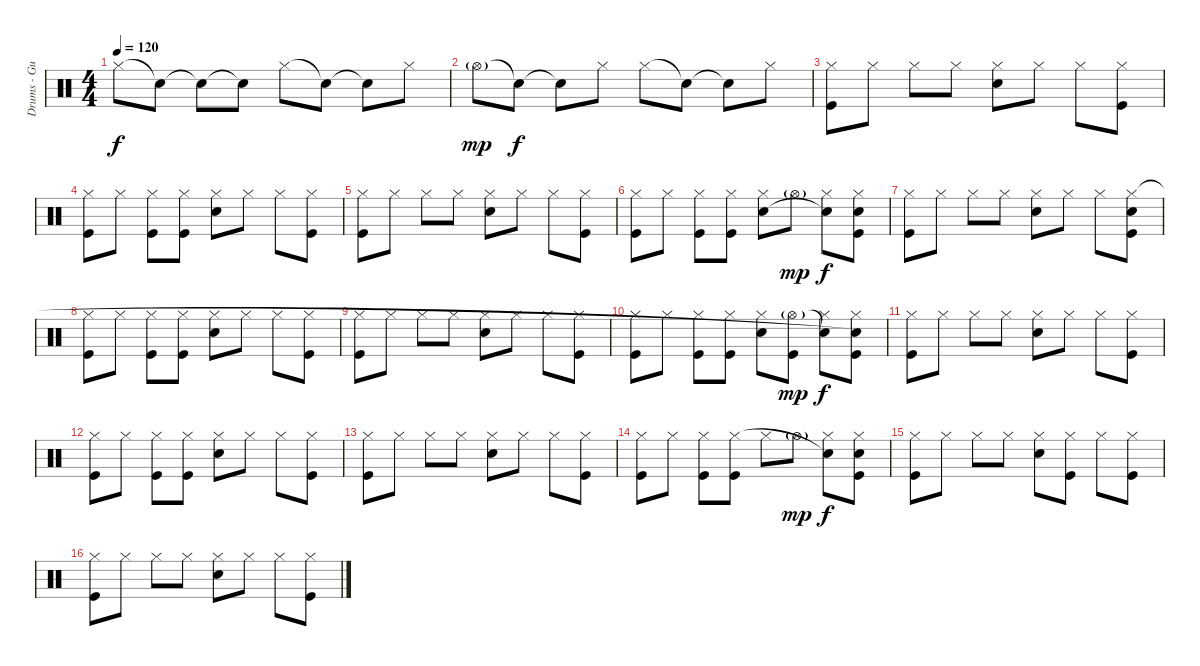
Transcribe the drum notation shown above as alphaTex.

\track ("Drums - Gustav" "Drums - Gu") {instrument percussion}
\staff {score}
\articulation defaults
\ts (4 4)
\tempo 120
\clef neutral
\ks c "Hi-Hat (closed)".8{dy f} "Snare (hit)"{t}.8 "Snare (hit)"{t}.8 "Snare (hit)"{t}.8 "Hi-Hat (closed)".8 "Snare (hit)"{t}.8 "Snare (hit)"{t}.8 "Hi-Hat (closed)".8
|
"Hi-Hat (open)"{g}.8{dy mp} "Snare (hit)"{t}.8{dy f} "Snare (hit)"{t}.8 "Hi-Hat (closed)".8 "Hi-Hat (closed)".8 "Snare (hit)"{t}.8 "Snare (hit)"{t}.8 "Hi-Hat (closed)".8 |
("Kick (hit)" "Hi-Hat (closed)").8 "Hi-Hat (closed)".8 "Hi-Hat (closed)".8 "Hi-Hat (closed)".8 ("Hi-Hat (closed)" "Snare (hit) 2").8 "Hi-Hat (closed)".8 "Hi-Hat (closed)".8 ("Kick (hit)" "Hi-Hat (closed)").8 |
("Kick (hit)" "Hi-Hat (closed)").8 "Hi-Hat (closed)".8 ("Kick (hit)" "Hi-Hat (closed)").8 ("Kick (hit)" "Hi-Hat (closed)").8 ("Hi-Hat (closed)" "Snare (hit) 2").8 "Hi-Hat (closed)".8 "Hi-Hat (closed)".8 ("Kick (hit)" "Hi-Hat (closed)").8 |
("Kick (hit)" "Hi-Hat (closed)").8 "Hi-Hat (closed)".8 "Hi-Hat (closed)".8 "Hi-Hat (closed)".8 ("Hi-Hat (closed)" "Snare (hit) 2").8 "Hi-Hat (closed)".8 "Hi-Hat (closed)".8 ("Kick (hit)" "Hi-Hat (closed)").8 |
("Kick (hit)" "Hi-Hat (closed)").8 "Hi-Hat (closed)".8 ("Kick (hit)" "Hi-Hat (closed)").8 ("Kick (hit)" "Hi-Hat (closed)").8 ("Hi-Hat (closed)" "Snare (hit) 2").8 "Hi-Hat (open)"{g}.8{dy mp} ("Hi-Hat (closed)" "Snare (hit)"{t}).8{dy f} ("Kick (hit)" "Hi-Hat (closed)" "Snare (hit)").8 |
("Kick (hit)" "Hi-Hat (closed)").8 "Hi-Hat (closed)".8 "Hi-Hat (closed)".8 "Hi-Hat (closed)".8 ("Hi-Hat (closed)" "Snare (hit) 2").8 "Hi-Hat (closed)".8 "Hi-Hat (closed)".8 ("Kick (hit)" "Snare (hit)" "Hi-Hat (closed)").8 |
("Kick (hit)" "Hi-Hat (closed)").8 "Hi-Hat (closed)".8 ("Kick (hit)" "Hi-Hat (closed)").8 ("Kick (hit)" "Hi-Hat (closed)").8 ("Hi-Hat (closed)" "Snare (hit) 2").8 "Hi-Hat (closed)".8 "Hi-Hat (closed)".8 ("Kick (hit)" "Hi-Hat (closed)").8 |
("Kick (hit)" "Hi-Hat (closed)").8 "Hi-Hat (closed)".8 "Hi-Hat (closed)".8 "Hi-Hat (closed)".8 ("Hi-Hat (closed)" "Snare (hit) 2").8 "Hi-Hat (closed)".8 "Hi-Hat (closed)".8 ("Kick (hit)" "Hi-Hat (closed)").8 |
("Kick (hit)" "Hi-Hat (closed)").8 "Hi-Hat (closed)".8 ("Kick (hit)" "Hi-Hat (closed)").8 ("Kick (hit)" "Hi-Hat (closed)").8 ("Hi-Hat (closed)" "Snare (hit) 2").8 ("Kick (hit)" "Hi-Hat (open)"{g}).8{dy mp} ("Hi-Hat (closed)" "Snare (hit)"{t}).8{dy f} ("Kick (hit)" "Hi-Hat (closed)" "Snare (hit)"{t}).8 |
("Kick (hit)" "Hi-Hat (closed)").8 "Hi-Hat (closed)".8 "Hi-Hat (closed)".8 "Hi-Hat (closed)".8 ("Hi-Hat (closed)" "Snare (hit) 2").8 "Hi-Hat (closed)".8 "Hi-Hat (closed)".8 ("Kick (hit)" "Hi-Hat (closed)").8 |
("Kick (hit)" "Hi-Hat (closed)").8 "Hi-Hat (closed)".8 ("Kick (hit)" "Hi-Hat (closed)").8 ("Kick (hit)" "Hi-Hat (closed)").8 ("Hi-Hat (closed)" "Snare (hit) 2").8 "Hi-Hat (closed)".8 "Hi-Hat (closed)".8 ("Kick (hit)" "Hi-Hat (closed)").8 |
("Kick (hit)" "Hi-Hat (closed)").8 "Hi-Hat (closed)".8 "Hi-Hat (closed)".8 "Hi-Hat (closed)".8 ("Hi-Hat (closed)" "Snare (hit) 2").8 "Hi-Hat (closed)".8 "Hi-Hat (closed)".8 ("Kick (hit)" "Hi-Hat (closed)").8 |
("Kick (hit)" "Hi-Hat (closed)").8 "Hi-Hat (closed)".8 ("Kick (hit)" "Hi-Hat (closed)").8 ("Kick (hit)" "Hi-Hat (closed)").8 "Hi-Hat (closed)".8 "Hi-Hat (open)"{g}.8{dy mp} ("Hi-Hat (closed)" "Snare (hit)"{t}).8{dy f} ("Kick (hit)" "Hi-Hat (closed)" "Snare (hit)").8 |
("Kick (hit)" "Hi-Hat (closed)").8 "Hi-Hat (closed)".8 "Hi-Hat (closed)".8 "Hi-Hat (closed)".8 ("Hi-Hat (closed)" "Snare (hit) 2").8 ("Kick (hit)" "Hi-Hat (closed)").8 "Hi-Hat (closed)".8 ("Kick (hit)" "Hi-Hat (closed)").8 |
("Kick (hit)" "Hi-Hat (closed)").8 "Hi-Hat (closed)".8 "Hi-Hat (closed)".8 "Hi-Hat (closed)".8 ("Hi-Hat (closed)" "Snare (hit) 2").8 "Hi-Hat (closed)".8 "Hi-Hat (closed)".8 ("Kick (hit)" "Hi-Hat (closed)").8
